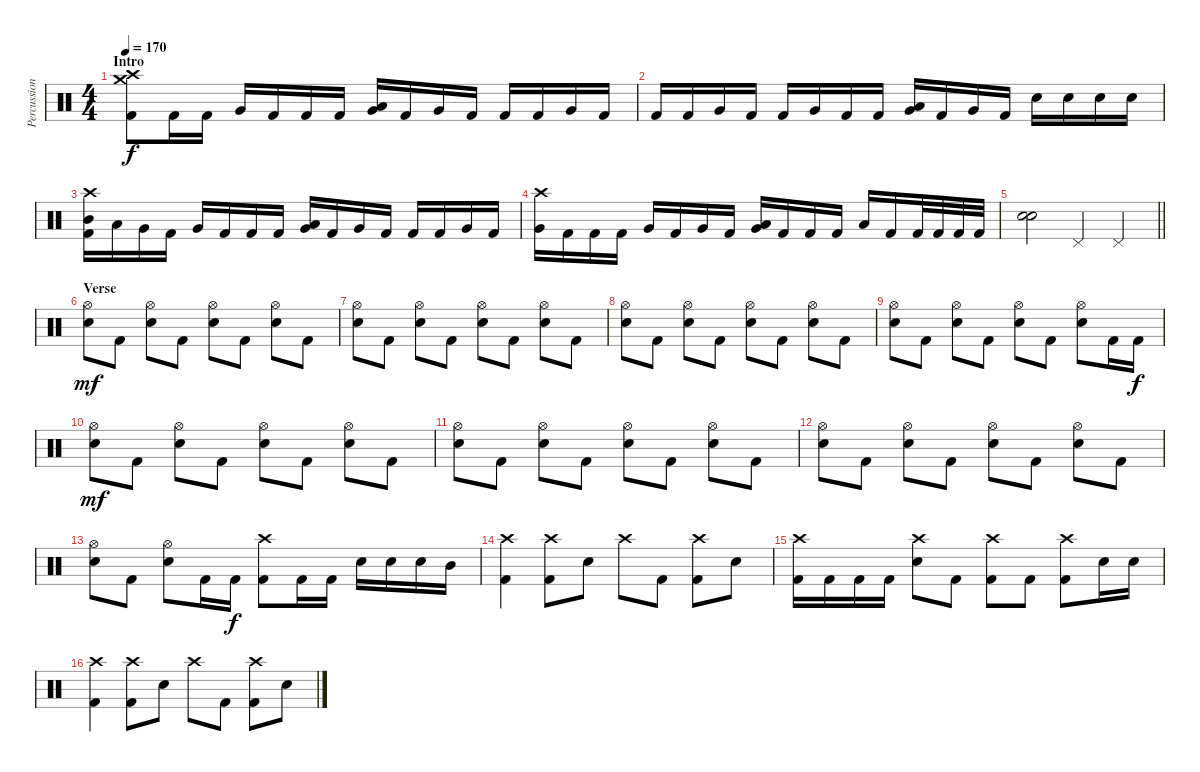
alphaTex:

\track ("Percussion" "Percussion") {instrument percussion}
\staff {score}
\articulation defaults
\ts (4 4)
\section ("" "Intro")
\tempo 170
\clef neutral
\ks c
("Crash high (hit)" "Crash medium (hit)" "Kick (hit) 2").8{dy f} "Kick (hit) 2".16 "Kick (hit) 2".16 "Very Low Tom (hit)".16 "Kick (hit) 2".16 "Kick (hit) 2".16 "Kick (hit) 2".16 ("Low Tom (hit)" "Very Low Tom (hit)").16 "Kick (hit) 2".16 "Very Low Tom (hit)".16 "Kick (hit) 2".16 "Kick (hit) 2".16 "Kick (hit) 2".16 "Very Low Tom (hit)".16 "Kick (hit) 2".16 |
"Kick (hit) 2".16 "Kick (hit) 2".16 "Very Low Tom (hit)".16 "Kick (hit) 2".16 "Kick (hit) 2".16 "Very Low Tom (hit)".16 "Kick (hit) 2".16 "Kick (hit) 2".16 ("Low Tom (hit)" "Very Low Tom (hit)").16 "Kick (hit) 2".16 "Very Low Tom (hit)".16 "Kick (hit) 2".16 "Electric Snare (hit)".16 "Electric Snare (hit)".16 "Electric Snare (hit)".16 "Electric Snare (hit)".16 |
("Crash high (hit)" "Mid Tom (hit)" "Kick (hit) 2").16 "Low Tom (hit)".16 "Very Low Tom (hit)".16 "Kick (hit) 2".16 "Very Low Tom (hit)".16 "Kick (hit) 2".16 "Kick (hit) 2".16 "Kick (hit) 2".16 ("Low Tom (hit)" "Very Low Tom (hit)").16 "Kick (hit) 2".16 "Very Low Tom (hit)".16 "Kick (hit) 2".16 "Kick (hit) 2".16 "Kick (hit) 2".16 "Very Low Tom (hit)".16 "Kick (hit) 2".16 |
("Crash high (hit)" "Very Low Tom (hit)").16 "Kick (hit) 2".16 "Kick (hit) 2".16 "Kick (hit) 2".16 "Very Low Tom (hit)".16 "Kick (hit) 2".16 "Very Low Tom (hit)".16 "Kick (hit) 2".16 ("Low Tom (hit)" "Very Low Tom (hit)").16 "Kick (hit) 2".16 "Kick (hit) 2".16 "Kick (hit) 2".16 "Low Tom (hit)".16 "Kick (hit) 2".16 "Kick (hit) 2".32 "Kick (hit) 2".32 "Kick (hit) 2".32 "Kick (hit) 2".32 |
\barLineRight lightlight
("Electric Snare (hit)" "Electric Snare (hit)").2{bd 240} "Pedal Hi-Hat (hit)".4 "Pedal Hi-Hat (hit)".4 |
\section ("" "Verse")
("Hi-Hat (open)" "Electric Snare (hit)").8{dy mf} "Kick (hit) 2".8 ("Hi-Hat (open)" "Electric Snare (hit)").8 "Kick (hit) 2".8 ("Hi-Hat (open)" "Electric Snare (hit)").8 "Kick (hit) 2".8 ("Hi-Hat (open)" "Electric Snare (hit)").8 "Kick (hit) 2".8 |
("Hi-Hat (open)" "Electric Snare (hit)").8 "Kick (hit) 2".8 ("Hi-Hat (open)" "Electric Snare (hit)").8 "Kick (hit) 2".8 ("Hi-Hat (open)" "Electric Snare (hit)").8 "Kick (hit) 2".8 ("Hi-Hat (open)" "Electric Snare (hit)").8 "Kick (hit) 2".8 |
("Hi-Hat (open)" "Electric Snare (hit)").8 "Kick (hit) 2".8 ("Hi-Hat (open)" "Electric Snare (hit)").8 "Kick (hit) 2".8 ("Hi-Hat (open)" "Electric Snare (hit)").8 "Kick (hit) 2".8 ("Hi-Hat (open)" "Electric Snare (hit)").8 "Kick (hit) 2".8 |
("Hi-Hat (open)" "Electric Snare (hit)").8 "Kick (hit) 2".8 ("Hi-Hat (open)" "Electric Snare (hit)").8 "Kick (hit) 2".8 ("Hi-Hat (open)" "Electric Snare (hit)").8 "Kick (hit) 2".8 ("Hi-Hat (open)" "Electric Snare (hit)").8 "Kick (hit) 2".16 "Kick (hit) 2".16{dy f} |
("Hi-Hat (open)" "Electric Snare (hit)").8{dy mf} "Kick (hit) 2".8 ("Hi-Hat (open)" "Electric Snare (hit)").8 "Kick (hit) 2".8 ("Hi-Hat (open)" "Electric Snare (hit)").8 "Kick (hit) 2".8 ("Hi-Hat (open)" "Electric Snare (hit)").8 "Kick (hit) 2".8 |
("Hi-Hat (open)" "Electric Snare (hit)").8 "Kick (hit) 2".8 ("Hi-Hat (open)" "Electric Snare (hit)").8 "Kick (hit) 2".8 ("Hi-Hat (open)" "Electric Snare (hit)").8 "Kick (hit) 2".8 ("Hi-Hat (open)" "Electric Snare (hit)").8 "Kick (hit) 2".8 |
("Hi-Hat (open)" "Electric Snare (hit)").8 "Kick (hit) 2".8 ("Hi-Hat (open)" "Electric Snare (hit)").8 "Kick (hit) 2".8 ("Hi-Hat (open)" "Electric Snare (hit)").8 "Kick (hit) 2".8 ("Hi-Hat (open)" "Electric Snare (hit)").8 "Kick (hit) 2".8 |
("Hi-Hat (open)" "Electric Snare (hit)").8 "Kick (hit) 2".8 ("Hi-Hat (open)" "Electric Snare (hit)").8 "Kick (hit) 2".16 "Kick (hit) 2".16{dy f} ("Crash high (hit)" "Kick (hit) 2").8 "Kick (hit) 2".16 "Kick (hit) 2".16 "Electric Snare (hit)".16 "Electric Snare (hit)".16 "Electric Snare (hit)".16 "Mid Tom (hit)".16 |
("Crash high (hit)" "Kick (hit) 2").4 ("Crash high (hit)" "Kick (hit) 2").8 "Electric Snare (hit)".8 "Crash high (hit)".8 "Kick (hit) 2".8 ("Crash high (hit)" "Kick (hit) 2").8 "Electric Snare (hit)".8 |
("Crash high (hit)" "Kick (hit) 2").16 "Kick (hit) 2".16 "Kick (hit) 2".16 "Kick (hit) 2".16 ("Crash high (hit)" "Electric Snare (hit)").8 "Kick (hit) 2".8 ("Crash high (hit)" "Kick (hit) 2").8 "Kick (hit) 2".8 ("Crash high (hit)" "Kick (hit) 2").8 "Electric Snare (hit)".16 "Electric Snare (hit)".16 |
("Crash high (hit)" "Kick (hit) 2").4 ("Crash high (hit)" "Kick (hit) 2").8 "Electric Snare (hit)".8 "Crash high (hit)".8 "Kick (hit) 2".8 ("Crash high (hit)" "Kick (hit) 2").8 "Electric Snare (hit)".8
